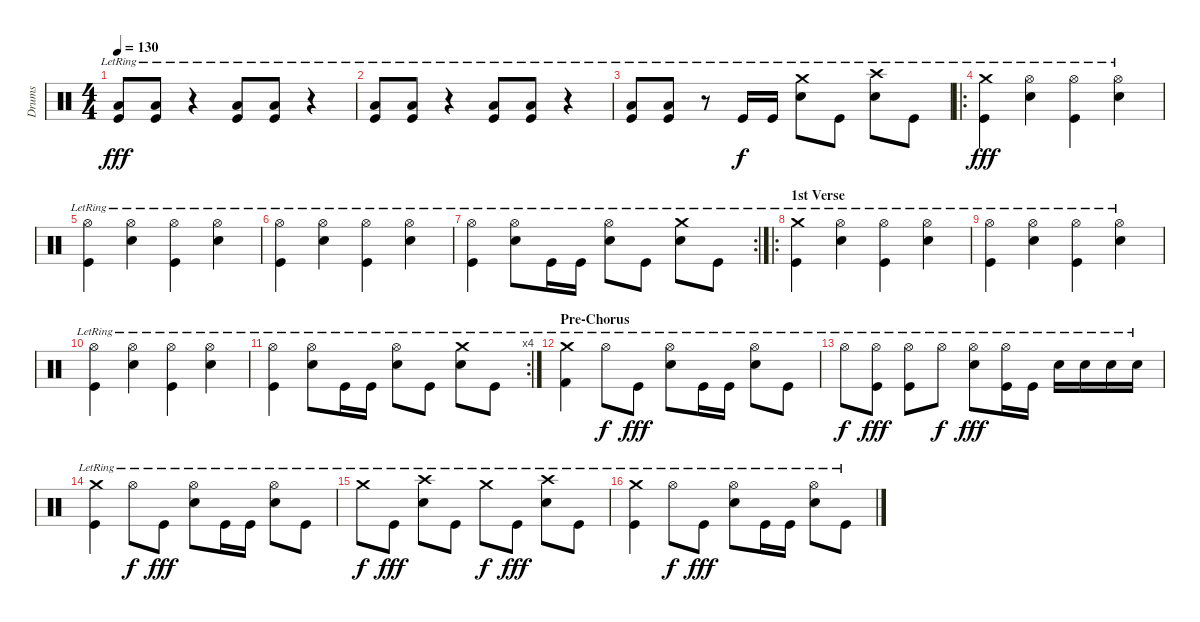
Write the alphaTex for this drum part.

\track ("Drums" "Drums") {instrument percussion}
\staff {score}
\articulation defaults
\ts (4 4)
\tempo 130
\clef neutral
\ks c
("Kick (hit)"{lr} "Low Tom (hit)"{lr}).8{dy fff} ("Kick (hit)"{lr} "Low Tom (hit)"{lr}).8 r.4 ("Kick (hit)"{lr} "Low Tom (hit)"{lr}).8 ("Kick (hit)"{lr} "Low Tom (hit)"{lr}).8 r.4 |
("Kick (hit)"{lr} "Low Tom (hit)"{lr}).8 ("Kick (hit)"{lr} "Low Tom (hit)"{lr}).8 r.4 ("Kick (hit)"{lr} "Low Tom (hit)"{lr}).8 ("Kick (hit)"{lr} "Low Tom (hit)"{lr}).8 r.4 |
("Kick (hit)"{lr} "Low Tom (hit)"{lr}).8 ("Kick (hit)"{lr} "Low Tom (hit)"{lr}).8 r.8 "Kick (hit)"{lr}.16{dy f} "Kick (hit)"{lr}.16 ("Snare (hit) 2"{lr} "Crash medium (hit)"{lr}).8 "Kick (hit)"{lr}.8 ("Snare (hit) 2"{lr} "Crash high (hit)"{lr}).8 "Kick (hit)"{lr}.8 |
\ro
("Kick (hit)"{lr} "Crash medium (hit)"{lr}).4{dy fff} ("Snare (hit) 2"{lr} "Hi-Hat (open)"{lr}).4 ("Kick (hit)"{lr} "Hi-Hat (open)"{lr}).4 ("Snare (hit) 2"{lr} "Hi-Hat (open)"{lr}).4 |
("Kick (hit)"{lr} "Hi-Hat (open)"{lr}).4 ("Snare (hit) 2"{lr} "Hi-Hat (open)"{lr}).4 ("Kick (hit)"{lr} "Hi-Hat (open)"{lr}).4 ("Snare (hit) 2"{lr} "Hi-Hat (open)"{lr}).4 |
("Kick (hit)"{lr} "Hi-Hat (open)"{lr}).4 ("Snare (hit) 2"{lr} "Hi-Hat (open)"{lr}).4 ("Kick (hit)"{lr} "Hi-Hat (open)"{lr}).4 ("Snare (hit) 2"{lr} "Hi-Hat (open)"{lr}).4 |
\rc 2
("Kick (hit)"{lr} "Hi-Hat (open)"{lr}).4 ("Snare (hit) 2"{lr} "Hi-Hat (open)"{lr}).8 "Kick (hit)"{lr}.16 "Kick (hit)"{lr}.16 ("Snare (hit) 2"{lr} "Hi-Hat (open)"{lr}).8 "Kick (hit)"{lr}.8 ("Snare (hit) 2"{lr} "Crash medium (hit)"{lr}).8 "Kick (hit)"{lr}.8 |
\ro
\section ("" "1st Verse")
("Kick (hit)"{lr} "Crash medium (hit)"{lr}).4 ("Snare (hit) 2"{lr} "Hi-Hat (open)"{lr}).4 ("Kick (hit)"{lr} "Hi-Hat (open)"{lr}).4 ("Snare (hit) 2"{lr} "Hi-Hat (open)"{lr}).4 |
("Kick (hit)"{lr} "Hi-Hat (open)"{lr}).4 ("Snare (hit) 2"{lr} "Hi-Hat (open)"{lr}).4 ("Kick (hit)"{lr} "Hi-Hat (open)"{lr}).4 ("Snare (hit) 2"{lr} "Hi-Hat (open)"{lr}).4 |
("Kick (hit)"{lr} "Hi-Hat (open)"{lr}).4 ("Snare (hit) 2"{lr} "Hi-Hat (open)"{lr}).4 ("Kick (hit)"{lr} "Hi-Hat (open)"{lr}).4 ("Snare (hit) 2"{lr} "Hi-Hat (open)"{lr}).4 |
\rc 4
("Kick (hit)"{lr} "Hi-Hat (open)"{lr}).4 ("Snare (hit) 2"{lr} "Hi-Hat (open)"{lr}).8 "Kick (hit)"{lr}.16 "Kick (hit)"{lr}.16 ("Snare (hit) 2"{lr} "Hi-Hat (open)"{lr}).8 "Kick (hit)"{lr}.8 ("Snare (hit) 2"{lr} "Crash medium (hit)"{lr}).8 "Kick (hit)"{lr}.8 |
\section ("" "Pre-Chorus")
("Kick (hit) 2"{lr} "Crash medium (hit)"{lr}).4 "Hi-Hat (open)"{lr}.8{dy f} "Kick (hit)"{lr}.8{dy fff} ("Snare (hit) 2"{lr} "Hi-Hat (open)"{lr}).8 "Kick (hit)"{lr}.16 "Kick (hit)"{lr}.16 ("Snare (hit) 2"{lr} "Hi-Hat (open)"{lr}).8 "Kick (hit)"{lr}.8 |
"Hi-Hat (open)"{lr}.8{dy f} ("Kick (hit)"{lr} "Hi-Hat (open)"{lr}).8{dy fff} ("Kick (hit)"{lr} "Hi-Hat (open)"{lr}).8 "Hi-Hat (open)"{lr}.8{dy f} ("Snare (hit) 2"{lr} "Hi-Hat (open)"{lr}).8{dy fff} ("Kick (hit)"{lr} "Hi-Hat (open)"{lr}).16 "Kick (hit)"{lr}.16 "Snare (hit) 2"{lr}.16 "Snare (hit) 2"{lr}.16 "Snare (hit) 2"{lr}.16 "Snare (hit) 2"{lr}.16 |
("Kick (hit)"{lr} "Crash medium (hit)"{lr}).4 "Hi-Hat (open)"{lr}.8{dy f} "Kick (hit)"{lr}.8{dy fff} ("Snare (hit) 2"{lr} "Hi-Hat (open)"{lr}).8 "Kick (hit)"{lr}.16 "Kick (hit)"{lr}.16 ("Snare (hit) 2"{lr} "Hi-Hat (open)"{lr}).8 "Kick (hit)"{lr}.8 |
"Crash medium (hit)"{lr}.8{dy f} "Kick (hit)"{lr}.8{dy fff} ("Snare (hit) 2"{lr} "Crash high (hit)"{lr}).8 "Kick (hit)"{lr}.8 "Crash medium (hit)"{lr}.8{dy f} "Kick (hit)"{lr}.8{dy fff} ("Snare (hit) 2"{lr} "Crash high (hit)"{lr}).8 "Kick (hit)"{lr}.8 |
("Kick (hit)"{lr} "Crash medium (hit)"{lr}).4 "Hi-Hat (open)"{lr}.8{dy f} "Kick (hit)"{lr}.8{dy fff} ("Snare (hit) 2"{lr} "Hi-Hat (open)"{lr}).8 "Kick (hit)"{lr}.16 "Kick (hit)"{lr}.16 ("Snare (hit) 2"{lr} "Hi-Hat (open)"{lr}).8 "Kick (hit)"{lr}.8
